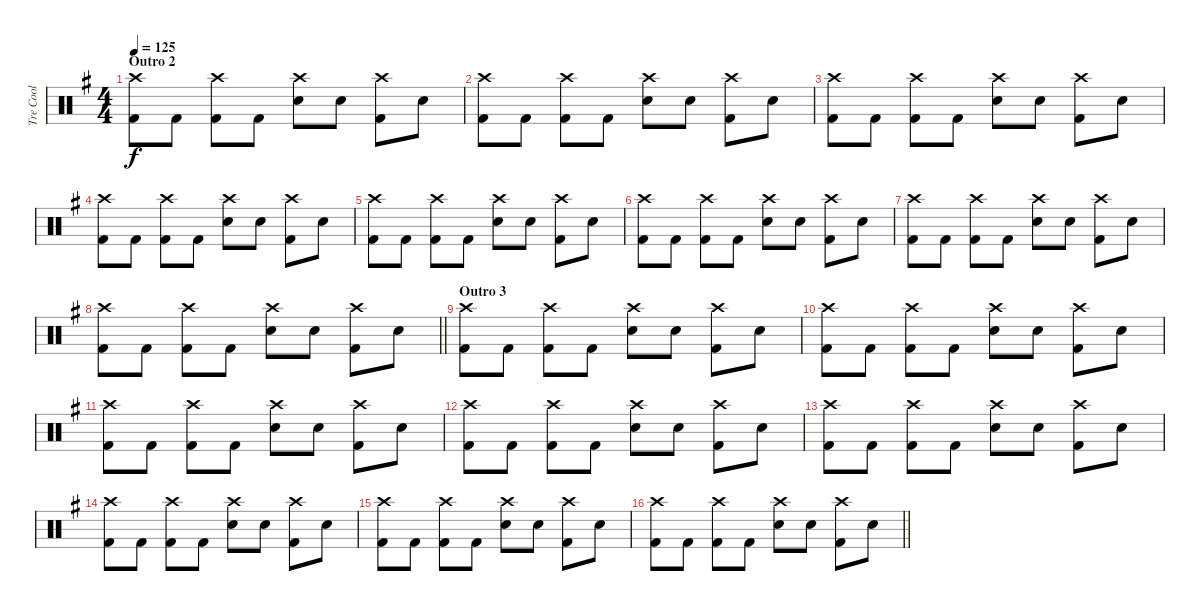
\track ("Tre Cool" "Tre Cool") {instrument percussion}
\staff {score}
\articulation defaults
\ts (4 4)
\section ("" "Outro 2")
\tempo 125
\clef neutral
\ks g
("Crash high (hit)" "Kick (hit) 2").8{dy f} "Kick (hit) 2".8 ("Crash high (hit)" "Kick (hit) 2").8 "Kick (hit) 2".8 ("Crash high (hit)" "Electric Snare (hit)").8 "Electric Snare (hit)".8 ("Crash high (hit)" "Kick (hit) 2").8 "Electric Snare (hit)".8 |
("Crash high (hit)" "Kick (hit) 2").8 "Kick (hit) 2".8 ("Crash high (hit)" "Kick (hit) 2").8 "Kick (hit) 2".8 ("Crash high (hit)" "Electric Snare (hit)").8 "Electric Snare (hit)".8 ("Crash high (hit)" "Kick (hit) 2").8 "Electric Snare (hit)".8 |
("Crash high (hit)" "Kick (hit) 2").8 "Kick (hit) 2".8 ("Crash high (hit)" "Kick (hit) 2").8 "Kick (hit) 2".8 ("Crash high (hit)" "Electric Snare (hit)").8 "Electric Snare (hit)".8 ("Crash high (hit)" "Kick (hit) 2").8 "Electric Snare (hit)".8 |
("Crash high (hit)" "Kick (hit) 2").8 "Kick (hit) 2".8 ("Crash high (hit)" "Kick (hit) 2").8 "Kick (hit) 2".8 ("Crash high (hit)" "Electric Snare (hit)").8 "Electric Snare (hit)".8 ("Crash high (hit)" "Kick (hit) 2").8 "Electric Snare (hit)".8 |
("Crash high (hit)" "Kick (hit) 2").8 "Kick (hit) 2".8 ("Crash high (hit)" "Kick (hit) 2").8 "Kick (hit) 2".8 ("Crash high (hit)" "Electric Snare (hit)").8 "Electric Snare (hit)".8 ("Crash high (hit)" "Kick (hit) 2").8 "Electric Snare (hit)".8 |
("Crash high (hit)" "Kick (hit) 2").8 "Kick (hit) 2".8 ("Crash high (hit)" "Kick (hit) 2").8 "Kick (hit) 2".8 ("Crash high (hit)" "Electric Snare (hit)").8 "Electric Snare (hit)".8 ("Crash high (hit)" "Kick (hit) 2").8 "Electric Snare (hit)".8 |
("Crash high (hit)" "Kick (hit) 2").8 "Kick (hit) 2".8 ("Crash high (hit)" "Kick (hit) 2").8 "Kick (hit) 2".8 ("Crash high (hit)" "Electric Snare (hit)").8 "Electric Snare (hit)".8 ("Crash high (hit)" "Kick (hit) 2").8 "Electric Snare (hit)".8 |
\barLineRight lightlight
("Crash high (hit)" "Kick (hit) 2").8 "Kick (hit) 2".8 ("Crash high (hit)" "Kick (hit) 2").8 "Kick (hit) 2".8 ("Crash high (hit)" "Electric Snare (hit)").8 "Electric Snare (hit)".8 ("Crash high (hit)" "Kick (hit) 2").8 "Electric Snare (hit)".8 |
\section ("" "Outro 3")
("Crash high (hit)" "Kick (hit) 2").8 "Kick (hit) 2".8 ("Crash high (hit)" "Kick (hit) 2").8 "Kick (hit) 2".8 ("Crash high (hit)" "Electric Snare (hit)").8 "Electric Snare (hit)".8 ("Crash high (hit)" "Kick (hit) 2").8 "Electric Snare (hit)".8 |
("Crash high (hit)" "Kick (hit) 2").8 "Kick (hit) 2".8 ("Crash high (hit)" "Kick (hit) 2").8 "Kick (hit) 2".8 ("Crash high (hit)" "Electric Snare (hit)").8 "Electric Snare (hit)".8 ("Crash high (hit)" "Kick (hit) 2").8 "Electric Snare (hit)".8 |
("Crash high (hit)" "Kick (hit) 2").8 "Kick (hit) 2".8 ("Crash high (hit)" "Kick (hit) 2").8 "Kick (hit) 2".8 ("Crash high (hit)" "Electric Snare (hit)").8 "Electric Snare (hit)".8 ("Crash high (hit)" "Kick (hit) 2").8 "Electric Snare (hit)".8 |
("Crash high (hit)" "Kick (hit) 2").8 "Kick (hit) 2".8 ("Crash high (hit)" "Kick (hit) 2").8 "Kick (hit) 2".8 ("Crash high (hit)" "Electric Snare (hit)").8 "Electric Snare (hit)".8 ("Crash high (hit)" "Kick (hit) 2").8 "Electric Snare (hit)".8 |
("Crash high (hit)" "Kick (hit) 2").8 "Kick (hit) 2".8 ("Crash high (hit)" "Kick (hit) 2").8 "Kick (hit) 2".8 ("Crash high (hit)" "Electric Snare (hit)").8 "Electric Snare (hit)".8 ("Crash high (hit)" "Kick (hit) 2").8 "Electric Snare (hit)".8 |
("Crash high (hit)" "Kick (hit) 2").8 "Kick (hit) 2".8 ("Crash high (hit)" "Kick (hit) 2").8 "Kick (hit) 2".8 ("Crash high (hit)" "Electric Snare (hit)").8 "Electric Snare (hit)".8 ("Crash high (hit)" "Kick (hit) 2").8 "Electric Snare (hit)".8 |
("Crash high (hit)" "Kick (hit) 2").8 "Kick (hit) 2".8 ("Crash high (hit)" "Kick (hit) 2").8 "Kick (hit) 2".8 ("Crash high (hit)" "Electric Snare (hit)").8 "Electric Snare (hit)".8 ("Crash high (hit)" "Kick (hit) 2").8 "Electric Snare (hit)".8 |
\barLineRight lightlight
("Crash high (hit)" "Kick (hit) 2").8 "Kick (hit) 2".8 ("Crash high (hit)" "Kick (hit) 2").8 "Kick (hit) 2".8 ("Crash high (hit)" "Electric Snare (hit)").8 "Electric Snare (hit)".8 ("Crash high (hit)" "Kick (hit) 2").8 "Electric Snare (hit)".8
